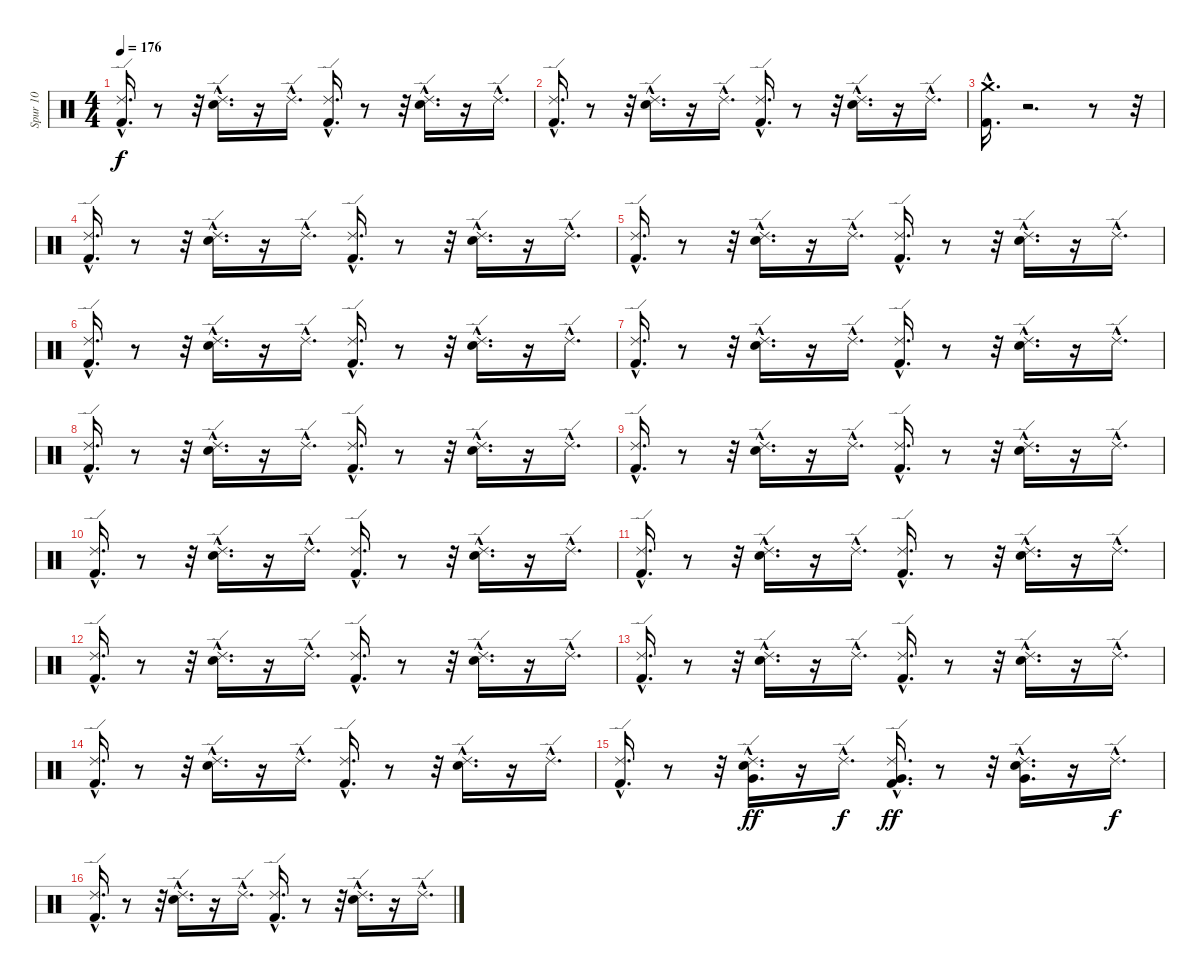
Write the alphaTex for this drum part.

\track ("Spur 10" "Spur 10") {instrument percussion}
\staff {score}
\articulation defaults
\ts (4 4)
\tempo 176
\clef neutral
\ks c
("Kick (hit) 2"{hac} "Ride (edge) 2"{hac}).16{d dy f} r.8 r.32 ("Snare (hit) 2"{hac} "Ride (edge) 2"{hac}).16{d} r.16 "Ride (edge) 2"{hac}.16{d} ("Kick (hit) 2"{hac} "Ride (edge) 2"{hac}).16{d} r.8 r.32 ("Snare (hit) 2"{hac} "Ride (edge) 2"{hac}).16{d} r.16 "Ride (edge) 2"{hac}.16{d} |
("Kick (hit) 2"{hac} "Ride (edge) 2"{hac}).16{d} r.8 r.32 ("Snare (hit) 2"{hac} "Ride (edge) 2"{hac}).16{d} r.16 "Ride (edge) 2"{hac}.16{d} ("Kick (hit) 2"{hac} "Ride (edge) 2"{hac}).16{d} r.8 r.32 ("Snare (hit) 2"{hac} "Ride (edge) 2"{hac}).16{d} r.16 "Ride (edge) 2"{hac}.16{d} |
("Kick (hit) 2"{hac} "Crash medium (hit)"{hac}).16{d} r.2{d} r.8 r.32 |
("Ride (edge) 2"{hac} "Kick (hit) 2"{hac}).16{d} r.8 r.32 ("Ride (edge) 2"{hac} "Snare (hit) 2"{hac}).16{d} r.16 "Ride (edge) 2"{hac}.16{d} ("Ride (edge) 2"{hac} "Kick (hit) 2"{hac}).16{d} r.8 r.32 ("Ride (edge) 2"{hac} "Snare (hit) 2"{hac}).16{d} r.16 "Ride (edge) 2"{hac}.16{d} |
("Ride (edge) 2"{hac} "Kick (hit) 2"{hac}).16{d} r.8 r.32 ("Ride (edge) 2"{hac} "Snare (hit) 2"{hac}).16{d} r.16 "Ride (edge) 2"{hac}.16{d} ("Ride (edge) 2"{hac} "Kick (hit) 2"{hac}).16{d} r.8 r.32 ("Ride (edge) 2"{hac} "Snare (hit) 2"{hac}).16{d} r.16 "Ride (edge) 2"{hac}.16{d} |
("Ride (edge) 2"{hac} "Kick (hit) 2"{hac}).16{d} r.8 r.32 ("Ride (edge) 2"{hac} "Snare (hit) 2"{hac}).16{d} r.16 "Ride (edge) 2"{hac}.16{d} ("Ride (edge) 2"{hac} "Kick (hit) 2"{hac}).16{d} r.8 r.32 ("Ride (edge) 2"{hac} "Snare (hit) 2"{hac}).16{d} r.16 "Ride (edge) 2"{hac}.16{d} |
("Ride (edge) 2"{hac} "Kick (hit) 2"{hac}).16{d} r.8 r.32 ("Ride (edge) 2"{hac} "Snare (hit) 2"{hac}).16{d} r.16 "Ride (edge) 2"{hac}.16{d} ("Ride (edge) 2"{hac} "Kick (hit) 2"{hac}).16{d} r.8 r.32 ("Ride (edge) 2"{hac} "Snare (hit) 2"{hac}).16{d} r.16 "Ride (edge) 2"{hac}.16{d} |
("Ride (edge) 2"{hac} "Kick (hit) 2"{hac}).16{d} r.8 r.32 ("Ride (edge) 2"{hac} "Snare (hit) 2"{hac}).16{d} r.16 "Ride (edge) 2"{hac}.16{d} ("Ride (edge) 2"{hac} "Kick (hit) 2"{hac}).16{d} r.8 r.32 ("Ride (edge) 2"{hac} "Snare (hit) 2"{hac}).16{d} r.16 "Ride (edge) 2"{hac}.16{d} |
("Ride (edge) 2"{hac} "Kick (hit) 2"{hac}).16{d} r.8 r.32 ("Ride (edge) 2"{hac} "Snare (hit) 2"{hac}).16{d} r.16 "Ride (edge) 2"{hac}.16{d} ("Ride (edge) 2"{hac} "Kick (hit) 2"{hac}).16{d} r.8 r.32 ("Ride (edge) 2"{hac} "Snare (hit) 2"{hac}).16{d} r.16 "Ride (edge) 2"{hac}.16{d} |
("Ride (edge) 2"{hac} "Kick (hit) 2"{hac}).16{d} r.8 r.32 ("Ride (edge) 2"{hac} "Snare (hit) 2"{hac}).16{d} r.16 "Ride (edge) 2"{hac}.16{d} ("Ride (edge) 2"{hac} "Kick (hit) 2"{hac}).16{d} r.8 r.32 ("Ride (edge) 2"{hac} "Snare (hit) 2"{hac}).16{d} r.16 "Ride (edge) 2"{hac}.16{d} |
("Ride (edge) 2"{hac} "Kick (hit) 2"{hac}).16{d} r.8 r.32 ("Ride (edge) 2"{hac} "Snare (hit) 2"{hac}).16{d} r.16 "Ride (edge) 2"{hac}.16{d} ("Ride (edge) 2"{hac} "Kick (hit) 2"{hac}).16{d} r.8 r.32 ("Ride (edge) 2"{hac} "Snare (hit) 2"{hac}).16{d} r.16 "Ride (edge) 2"{hac}.16{d} |
("Ride (edge) 2"{hac} "Kick (hit) 2"{hac}).16{d} r.8 r.32 ("Ride (edge) 2"{hac} "Snare (hit) 2"{hac}).16{d} r.16 "Ride (edge) 2"{hac}.16{d} ("Ride (edge) 2"{hac} "Kick (hit) 2"{hac}).16{d} r.8 r.32 ("Ride (edge) 2"{hac} "Snare (hit) 2"{hac}).16{d} r.16 "Ride (edge) 2"{hac}.16{d} |
("Ride (edge) 2"{hac} "Kick (hit) 2"{hac}).16{d} r.8 r.32 ("Ride (edge) 2"{hac} "Snare (hit) 2"{hac}).16{d} r.16 "Ride (edge) 2"{hac}.16{d} ("Ride (edge) 2"{hac} "Kick (hit) 2"{hac}).16{d} r.8 r.32 ("Ride (edge) 2"{hac} "Snare (hit) 2"{hac}).16{d} r.16 "Ride (edge) 2"{hac}.16{d} |
("Ride (edge) 2"{hac} "Kick (hit) 2"{hac}).16{d} r.8 r.32 ("Ride (edge) 2"{hac} "Snare (hit) 2"{hac}).16{d} r.16 "Ride (edge) 2"{hac}.16{d} ("Ride (edge) 2"{hac} "Kick (hit) 2"{hac}).16{d} r.8 r.32 ("Ride (edge) 2"{hac} "Snare (hit) 2"{hac}).16{d} r.16 "Ride (edge) 2"{hac}.16{d} |
("Ride (edge) 2"{hac} "Kick (hit) 2"{hac}).16{d} r.8 r.32 ("Very Low Tom (hit)"{hac} "Ride (edge) 2"{hac} "Snare (hit) 2"{hac}).16{d dy ff} r.16 "Ride (edge) 2"{hac}.16{d dy f} ("Very Low Tom (hit)"{hac} "Ride (edge) 2"{hac} "Kick (hit) 2"{hac}).16{d dy ff} r.8 r.32 ("Very Low Tom (hit)"{hac} "Ride (edge) 2"{hac} "Snare (hit) 2"{hac}).16{d} r.16 "Ride (edge) 2"{hac}.16{d dy f} |
("Ride (edge) 2"{hac} "Kick (hit) 2"{hac}).16{d} r.8 r.32 ("Ride (edge) 2"{hac} "Snare (hit) 2"{hac}).16{d} r.16 "Ride (edge) 2"{hac}.16{d} ("Ride (edge) 2"{hac} "Kick (hit) 2"{hac}).16{d} r.8 r.32 ("Ride (edge) 2"{hac} "Snare (hit) 2"{hac}).16{d} r.16 "Ride (edge) 2"{hac}.16{d}
